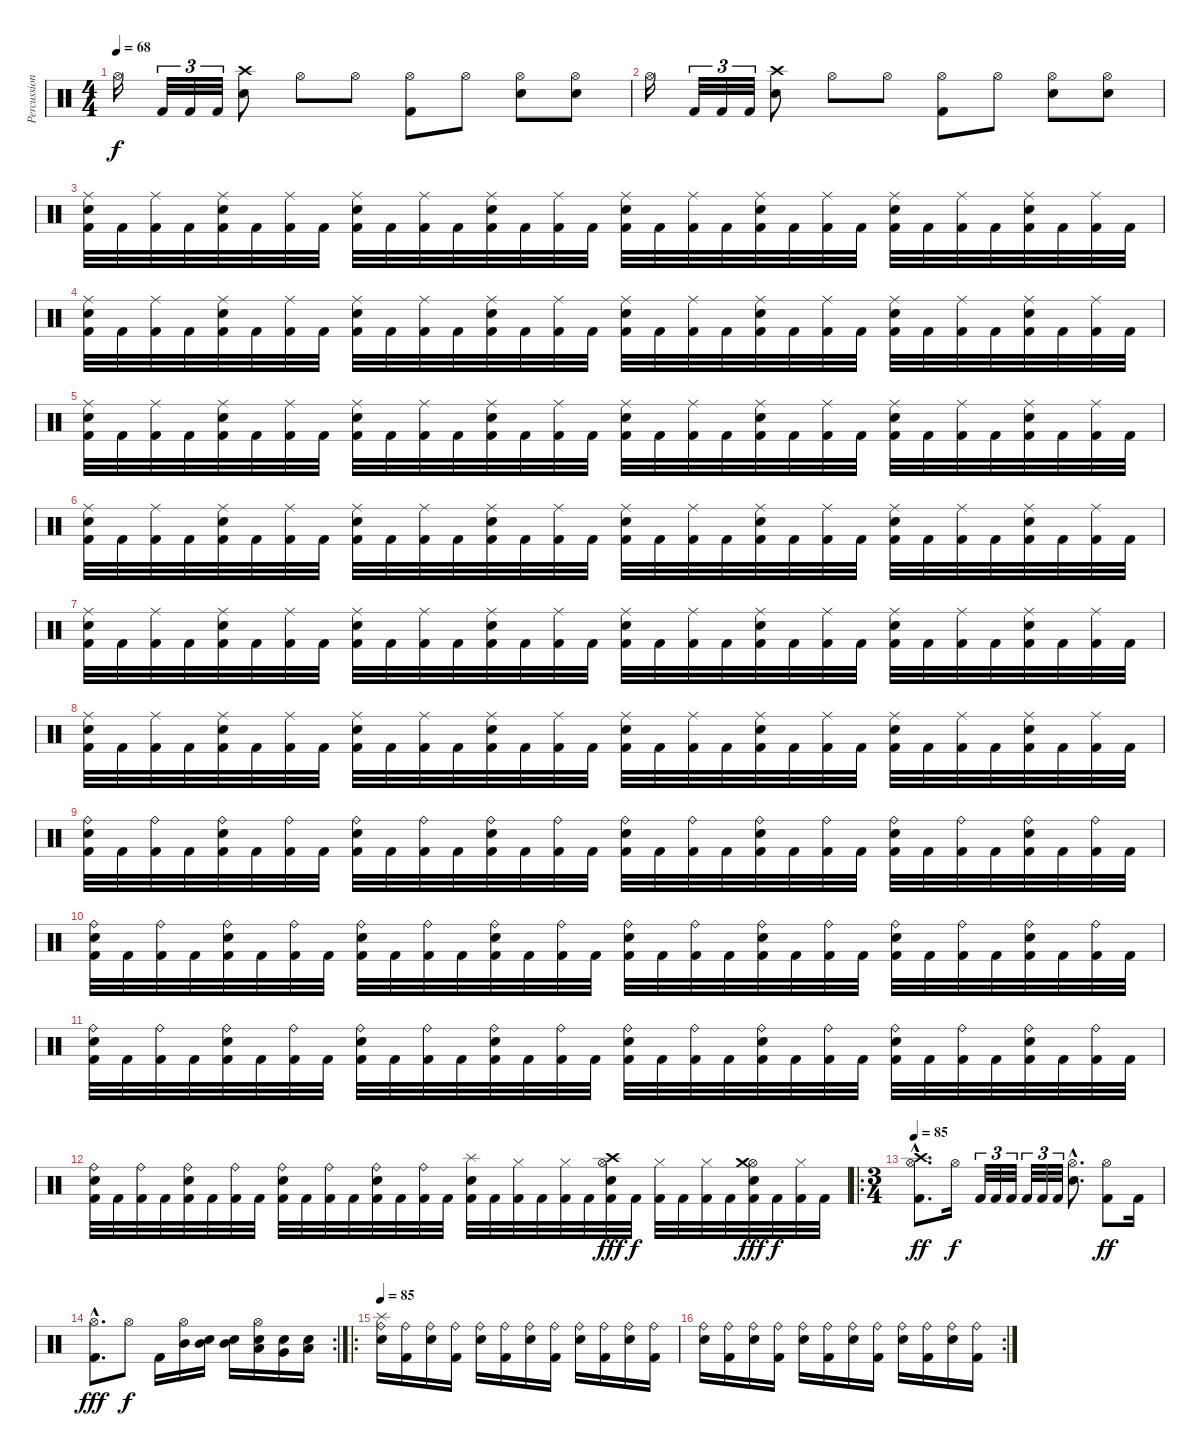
\track ("Percussion" "Percussion") {instrument percussion}
\staff {score}
\articulation defaults
\ts (4 4)
\tempo 68
\clef neutral
\ks c "Hi-Hat (open)".16{dy f volume 15} "Kick (hit) 2".32{tu (3 2)} "Kick (hit) 2".32{tu (3 2)} "Kick (hit) 2".32{tu (3 2)}
("Snare (hit) 2" "Crash high (hit)").8 "Hi-Hat (open)".8 "Hi-Hat (open)".8 ("Kick (hit) 2" "Hi-Hat (open)").8 "Hi-Hat (open)".8 ("Snare (hit) 2" "Hi-Hat (open)").8 ("Snare (hit) 2" "Hi-Hat (open)").8 |
"Hi-Hat (open)".16 "Kick (hit) 2".32{tu (3 2)} "Kick (hit) 2".32{tu (3 2)} "Kick (hit) 2".32{tu (3 2)} ("Snare (hit) 2" "Crash high (hit)").8 "Hi-Hat (open)".8 "Hi-Hat (open)".8 ("Kick (hit) 2" "Hi-Hat (open)").8 "Hi-Hat (open)".8 ("Snare (hit) 2" "Hi-Hat (open)").8 ("Snare (hit) 2" "Hi-Hat (open)").8 |
("Kick (hit) 2" "Snare (hit) 2" "Ride (middle)").32 "Kick (hit) 2".32 ("Kick (hit) 2" "Ride (middle)").32 "Kick (hit) 2".32 ("Kick (hit) 2" "Snare (hit) 2" "Ride (middle)").32 "Kick (hit) 2".32 ("Kick (hit) 2" "Ride (middle)").32 "Kick (hit) 2".32 ("Kick (hit) 2" "Snare (hit) 2" "Ride (middle)").32 "Kick (hit) 2".32 ("Kick (hit) 2" "Ride (middle)").32 "Kick (hit) 2".32 ("Kick (hit) 2" "Snare (hit) 2" "Ride (middle)").32 "Kick (hit) 2".32 ("Kick (hit) 2" "Ride (middle)").32 "Kick (hit) 2".32 ("Kick (hit) 2" "Snare (hit) 2" "Ride (middle)").32 "Kick (hit) 2".32 ("Kick (hit) 2" "Ride (middle)").32 "Kick (hit) 2".32 ("Kick (hit) 2" "Snare (hit) 2" "Ride (middle)").32 "Kick (hit) 2".32 ("Kick (hit) 2" "Ride (middle)").32 "Kick (hit) 2".32 ("Kick (hit) 2" "Snare (hit) 2" "Ride (middle)").32 "Kick (hit) 2".32 ("Kick (hit) 2" "Ride (middle)").32 "Kick (hit) 2".32 ("Kick (hit) 2" "Snare (hit) 2" "Ride (middle)").32 "Kick (hit) 2".32 ("Kick (hit) 2" "Ride (middle)").32 "Kick (hit) 2".32 |
("Kick (hit) 2" "Snare (hit) 2" "Ride (middle)").32 "Kick (hit) 2".32 ("Kick (hit) 2" "Ride (middle)").32 "Kick (hit) 2".32 ("Kick (hit) 2" "Snare (hit) 2" "Ride (middle)").32 "Kick (hit) 2".32 ("Kick (hit) 2" "Ride (middle)").32 "Kick (hit) 2".32 ("Kick (hit) 2" "Snare (hit) 2" "Ride (middle)").32 "Kick (hit) 2".32 ("Kick (hit) 2" "Ride (middle)").32 "Kick (hit) 2".32 ("Kick (hit) 2" "Snare (hit) 2" "Ride (middle)").32 "Kick (hit) 2".32 ("Kick (hit) 2" "Ride (middle)").32 "Kick (hit) 2".32 ("Kick (hit) 2" "Snare (hit) 2" "Ride (middle)").32 "Kick (hit) 2".32 ("Kick (hit) 2" "Ride (middle)").32 "Kick (hit) 2".32 ("Kick (hit) 2" "Snare (hit) 2" "Ride (middle)").32 "Kick (hit) 2".32 ("Kick (hit) 2" "Ride (middle)").32 "Kick (hit) 2".32 ("Kick (hit) 2" "Snare (hit) 2" "Ride (middle)").32 "Kick (hit) 2".32 ("Kick (hit) 2" "Ride (middle)").32 "Kick (hit) 2".32 ("Kick (hit) 2" "Snare (hit) 2" "Ride (middle)").32 "Kick (hit) 2".32 ("Kick (hit) 2" "Ride (middle)").32 "Kick (hit) 2".32 |
("Kick (hit) 2" "Snare (hit) 2" "Ride (middle)").32 "Kick (hit) 2".32 ("Kick (hit) 2" "Ride (middle)").32 "Kick (hit) 2".32 ("Kick (hit) 2" "Snare (hit) 2" "Ride (middle)").32 "Kick (hit) 2".32 ("Kick (hit) 2" "Ride (middle)").32 "Kick (hit) 2".32 ("Kick (hit) 2" "Snare (hit) 2" "Ride (middle)").32 "Kick (hit) 2".32 ("Kick (hit) 2" "Ride (middle)").32 "Kick (hit) 2".32 ("Kick (hit) 2" "Snare (hit) 2" "Ride (middle)").32 "Kick (hit) 2".32 ("Kick (hit) 2" "Ride (middle)").32 "Kick (hit) 2".32 ("Kick (hit) 2" "Snare (hit) 2" "Ride (middle)").32 "Kick (hit) 2".32 ("Kick (hit) 2" "Ride (middle)").32 "Kick (hit) 2".32 ("Kick (hit) 2" "Snare (hit) 2" "Ride (middle)").32 "Kick (hit) 2".32 ("Kick (hit) 2" "Ride (middle)").32 "Kick (hit) 2".32 ("Kick (hit) 2" "Snare (hit) 2" "Ride (middle)").32 "Kick (hit) 2".32 ("Kick (hit) 2" "Ride (middle)").32 "Kick (hit) 2".32 ("Kick (hit) 2" "Snare (hit) 2" "Ride (middle)").32 "Kick (hit) 2".32 ("Kick (hit) 2" "Ride (middle)").32 "Kick (hit) 2".32 |
("Kick (hit) 2" "Snare (hit) 2" "Ride (middle)").32 "Kick (hit) 2".32 ("Kick (hit) 2" "Ride (middle)").32 "Kick (hit) 2".32 ("Kick (hit) 2" "Snare (hit) 2" "Ride (middle)").32 "Kick (hit) 2".32 ("Kick (hit) 2" "Ride (middle)").32 "Kick (hit) 2".32 ("Kick (hit) 2" "Snare (hit) 2" "Ride (middle)").32 "Kick (hit) 2".32 ("Kick (hit) 2" "Ride (middle)").32 "Kick (hit) 2".32 ("Kick (hit) 2" "Snare (hit) 2" "Ride (middle)").32 "Kick (hit) 2".32 ("Kick (hit) 2" "Ride (middle)").32 "Kick (hit) 2".32 ("Kick (hit) 2" "Snare (hit) 2" "Ride (middle)").32 "Kick (hit) 2".32 ("Kick (hit) 2" "Ride (middle)").32 "Kick (hit) 2".32 ("Kick (hit) 2" "Snare (hit) 2" "Ride (middle)").32 "Kick (hit) 2".32 ("Kick (hit) 2" "Ride (middle)").32 "Kick (hit) 2".32 ("Kick (hit) 2" "Snare (hit) 2" "Ride (middle)").32 "Kick (hit) 2".32 ("Kick (hit) 2" "Ride (middle)").32 "Kick (hit) 2".32 ("Kick (hit) 2" "Snare (hit) 2" "Ride (middle)").32 "Kick (hit) 2".32 ("Kick (hit) 2" "Ride (middle)").32 "Kick (hit) 2".32 |
("Kick (hit) 2" "Snare (hit) 2" "Ride (middle)").32 "Kick (hit) 2".32 ("Kick (hit) 2" "Ride (middle)").32 "Kick (hit) 2".32 ("Kick (hit) 2" "Snare (hit) 2" "Ride (middle)").32 "Kick (hit) 2".32 ("Kick (hit) 2" "Ride (middle)").32 "Kick (hit) 2".32 ("Kick (hit) 2" "Snare (hit) 2" "Ride (middle)").32 "Kick (hit) 2".32 ("Kick (hit) 2" "Ride (middle)").32 "Kick (hit) 2".32 ("Kick (hit) 2" "Snare (hit) 2" "Ride (middle)").32 "Kick (hit) 2".32 ("Kick (hit) 2" "Ride (middle)").32 "Kick (hit) 2".32 ("Kick (hit) 2" "Snare (hit) 2" "Ride (middle)").32 "Kick (hit) 2".32 ("Kick (hit) 2" "Ride (middle)").32 "Kick (hit) 2".32 ("Kick (hit) 2" "Snare (hit) 2" "Ride (middle)").32 "Kick (hit) 2".32 ("Kick (hit) 2" "Ride (middle)").32 "Kick (hit) 2".32 ("Kick (hit) 2" "Snare (hit) 2" "Ride (middle)").32 "Kick (hit) 2".32 ("Kick (hit) 2" "Ride (middle)").32 "Kick (hit) 2".32 ("Kick (hit) 2" "Snare (hit) 2" "Ride (middle)").32 "Kick (hit) 2".32 ("Kick (hit) 2" "Ride (middle)").32 "Kick (hit) 2".32 |
("Kick (hit) 2" "Snare (hit) 2" "Ride (middle)").32 "Kick (hit) 2".32 ("Kick (hit) 2" "Ride (middle)").32 "Kick (hit) 2".32 ("Kick (hit) 2" "Snare (hit) 2" "Ride (middle)").32 "Kick (hit) 2".32 ("Kick (hit) 2" "Ride (middle)").32 "Kick (hit) 2".32 ("Kick (hit) 2" "Snare (hit) 2" "Ride (middle)").32 "Kick (hit) 2".32 ("Kick (hit) 2" "Ride (middle)").32 "Kick (hit) 2".32 ("Kick (hit) 2" "Snare (hit) 2" "Ride (middle)").32 "Kick (hit) 2".32 ("Kick (hit) 2" "Ride (middle)").32 "Kick (hit) 2".32 ("Kick (hit) 2" "Snare (hit) 2" "Ride (middle)").32 "Kick (hit) 2".32 ("Kick (hit) 2" "Ride (middle)").32 "Kick (hit) 2".32 ("Kick (hit) 2" "Snare (hit) 2" "Ride (middle)").32 "Kick (hit) 2".32 ("Kick (hit) 2" "Ride (middle)").32 "Kick (hit) 2".32 ("Kick (hit) 2" "Snare (hit) 2" "Ride (middle)").32 "Kick (hit) 2".32 ("Kick (hit) 2" "Ride (middle)").32 "Kick (hit) 2".32 ("Kick (hit) 2" "Snare (hit) 2" "Ride (middle)").32 "Kick (hit) 2".32 ("Kick (hit) 2" "Ride (middle)").32 "Kick (hit) 2".32 |
("Kick (hit) 2" "Snare (hit) 2" "Ride (bell)").32 "Kick (hit) 2".32 ("Kick (hit) 2" "Ride (bell)").32 "Kick (hit) 2".32 ("Kick (hit) 2" "Snare (hit) 2" "Ride (bell)").32 "Kick (hit) 2".32 ("Kick (hit) 2" "Ride (bell)").32 "Kick (hit) 2".32 ("Kick (hit) 2" "Snare (hit) 2" "Ride (bell)").32 "Kick (hit) 2".32 ("Kick (hit) 2" "Ride (bell)").32 "Kick (hit) 2".32 ("Kick (hit) 2" "Snare (hit) 2" "Ride (bell)").32 "Kick (hit) 2".32 ("Kick (hit) 2" "Ride (bell)").32 "Kick (hit) 2".32 ("Kick (hit) 2" "Snare (hit) 2" "Ride (bell)").32 "Kick (hit) 2".32 ("Kick (hit) 2" "Ride (bell)").32 "Kick (hit) 2".32 ("Kick (hit) 2" "Snare (hit) 2" "Ride (bell)").32 "Kick (hit) 2".32 ("Kick (hit) 2" "Ride (bell)").32 "Kick (hit) 2".32 ("Kick (hit) 2" "Snare (hit) 2" "Ride (bell)").32 "Kick (hit) 2".32 ("Kick (hit) 2" "Ride (bell)").32 "Kick (hit) 2".32 ("Kick (hit) 2" "Snare (hit) 2" "Ride (bell)").32 "Kick (hit) 2".32 ("Kick (hit) 2" "Ride (bell)").32 "Kick (hit) 2".32 |
("Kick (hit) 2" "Snare (hit) 2" "Ride (bell)").32 "Kick (hit) 2".32 ("Kick (hit) 2" "Ride (bell)").32 "Kick (hit) 2".32 ("Kick (hit) 2" "Snare (hit) 2" "Ride (bell)").32 "Kick (hit) 2".32 ("Kick (hit) 2" "Ride (bell)").32 "Kick (hit) 2".32 ("Kick (hit) 2" "Snare (hit) 2" "Ride (bell)").32 "Kick (hit) 2".32 ("Kick (hit) 2" "Ride (bell)").32 "Kick (hit) 2".32 ("Kick (hit) 2" "Snare (hit) 2" "Ride (bell)").32 "Kick (hit) 2".32 ("Kick (hit) 2" "Ride (bell)").32 "Kick (hit) 2".32 ("Kick (hit) 2" "Snare (hit) 2" "Ride (bell)").32 "Kick (hit) 2".32 ("Kick (hit) 2" "Ride (bell)").32 "Kick (hit) 2".32 ("Kick (hit) 2" "Snare (hit) 2" "Ride (bell)").32 "Kick (hit) 2".32 ("Kick (hit) 2" "Ride (bell)").32 "Kick (hit) 2".32 ("Kick (hit) 2" "Snare (hit) 2" "Ride (bell)").32 "Kick (hit) 2".32 ("Kick (hit) 2" "Ride (bell)").32 "Kick (hit) 2".32 ("Kick (hit) 2" "Snare (hit) 2" "Ride (bell)").32 "Kick (hit) 2".32 ("Kick (hit) 2" "Ride (bell)").32 "Kick (hit) 2".32 |
("Kick (hit) 2" "Snare (hit) 2" "Ride (bell)").32 "Kick (hit) 2".32 ("Kick (hit) 2" "Ride (bell)").32 "Kick (hit) 2".32 ("Kick (hit) 2" "Snare (hit) 2" "Ride (bell)").32 "Kick (hit) 2".32 ("Kick (hit) 2" "Ride (bell)").32 "Kick (hit) 2".32 ("Kick (hit) 2" "Snare (hit) 2" "Ride (bell)").32 "Kick (hit) 2".32 ("Kick (hit) 2" "Ride (bell)").32 "Kick (hit) 2".32 ("Kick (hit) 2" "Snare (hit) 2" "Ride (bell)").32 "Kick (hit) 2".32 ("Kick (hit) 2" "Ride (bell)").32 "Kick (hit) 2".32 ("Kick (hit) 2" "Snare (hit) 2" "Ride (bell)").32 "Kick (hit) 2".32 ("Kick (hit) 2" "Ride (bell)").32 "Kick (hit) 2".32 ("Kick (hit) 2" "Snare (hit) 2" "Ride (bell)").32 "Kick (hit) 2".32 ("Kick (hit) 2" "Ride (bell)").32 "Kick (hit) 2".32 ("Kick (hit) 2" "Snare (hit) 2" "Ride (bell)").32 "Kick (hit) 2".32 ("Kick (hit) 2" "Ride (bell)").32 "Kick (hit) 2".32 ("Kick (hit) 2" "Snare (hit) 2" "Ride (bell)").32 "Kick (hit) 2".32 ("Kick (hit) 2" "Ride (bell)").32 "Kick (hit) 2".32 |
("Kick (hit) 2" "Snare (hit) 2" "Ride (bell)").32 "Kick (hit) 2".32 ("Kick (hit) 2" "Ride (bell)").32 "Kick (hit) 2".32 ("Kick (hit) 2" "Snare (hit) 2" "Ride (bell)").32 "Kick (hit) 2".32 ("Kick (hit) 2" "Ride (bell)").32 "Kick (hit) 2".32 ("Kick (hit) 2" "Snare (hit) 2" "Ride (bell)").32 "Kick (hit) 2".32 ("Kick (hit) 2" "Ride (bell)").32 "Kick (hit) 2".32 ("Kick (hit) 2" "Snare (hit) 2" "Ride (bell)").32 "Kick (hit) 2".32 ("Kick (hit) 2" "Ride (bell)").32 "Kick (hit) 2".32 ("Kick (hit) 2" "Snare (hit) 2" "Splash (hit)").32 "Kick (hit) 2".32 ("Kick (hit) 2" "Hi-Hat (closed)").32 "Kick (hit) 2".32 ("Kick (hit) 2" "Hi-Hat (closed)").32 "Kick (hit) 2".32 ("Kick (hit) 2" "Snare (hit) 2" "Hi-Hat (open)" "Crash high (hit)").32{dy fff} "Kick (hit) 2".32{dy f} ("Kick (hit) 2" "Hi-Hat (closed)").32 "Kick (hit) 2".32 ("Kick (hit) 2" "Hi-Hat (closed)").32 "Kick (hit) 2".32 ("Kick (hit) 2" "Snare (hit) 2" "Hi-Hat (open)" "Crash medium (hit)").32{dy fff} "Kick (hit) 2".32{dy f} ("Kick (hit) 2" "Hi-Hat (closed)").32 "Kick (hit) 2".32 |
\ro
\ts (3 4)
\tempo 85
("Kick (hit) 2"{hac} "Hi-Hat (open)"{hac} "Crash high (hit)"{hac}).8{d dy ff} "Hi-Hat (open)".16{dy f} "Kick (hit) 2".32{tu (3 2)} "Kick (hit) 2".32{tu (3 2)} "Kick (hit) 2".32{tu (3 2)} "Kick (hit) 2".32{tu (3 2)} "Kick (hit) 2".32{tu (3 2)} "Kick (hit) 2".32{tu (3 2)} ("Snare (hit) 2"{hac} "Hi-Hat (open)"{hac}).8{d} ("Kick (hit) 2" "Hi-Hat (open)").8{dy ff} "Kick (hit) 2".16 |
\rc 2
("Kick (hit) 2"{hac} "Hi-Hat (open)"{hac}).8{d dy fff} "Hi-Hat (open)".8{dy f} "Kick (hit) 2".16 ("Mid Tom (hit)" "Hi-Hat (open)").16 ("Mid Tom (hit)" "Snare (hit) 2").16 ("Mid Tom (hit)" "Snare (hit) 2").16 ("Low Tom (hit)" "Snare (hit) 2" "Hi-Hat (open)").16 ("Very Low Tom (hit)" "Snare (hit) 2").16 ("Low Floor Tom (hit)" "Snare (hit) 2").16 |
\ro
\tempo 85
("Snare (hit) 2" "Ride (bell)" "Splash (hit)").16 ("Kick (hit) 2" "Ride (bell)").16 ("Snare (hit) 2" "Ride (bell)").16 ("Kick (hit) 2" "Ride (bell)").16 ("Snare (hit) 2" "Ride (bell)").16 ("Kick (hit) 2" "Ride (bell)").16 ("Snare (hit) 2" "Ride (bell)").16 ("Kick (hit) 2" "Ride (bell)").16 ("Snare (hit) 2" "Ride (bell)").16 ("Kick (hit) 2" "Ride (bell)").16 ("Snare (hit) 2" "Ride (bell)").16 ("Kick (hit) 2" "Ride (bell)").16 |
\rc 2
("Snare (hit) 2" "Ride (bell)").16 ("Kick (hit) 2" "Ride (bell)").16 ("Snare (hit) 2" "Ride (bell)").16 ("Kick (hit) 2" "Ride (bell)").16 ("Snare (hit) 2" "Ride (bell)").16 ("Kick (hit) 2" "Ride (bell)").16 ("Snare (hit) 2" "Ride (bell)").16 ("Kick (hit) 2" "Ride (bell)").16 ("Snare (hit) 2" "Ride (bell)").16 ("Kick (hit) 2" "Ride (bell)").16 ("Snare (hit) 2" "Ride (bell)").16 ("Kick (hit) 2" "Ride (bell)").16
